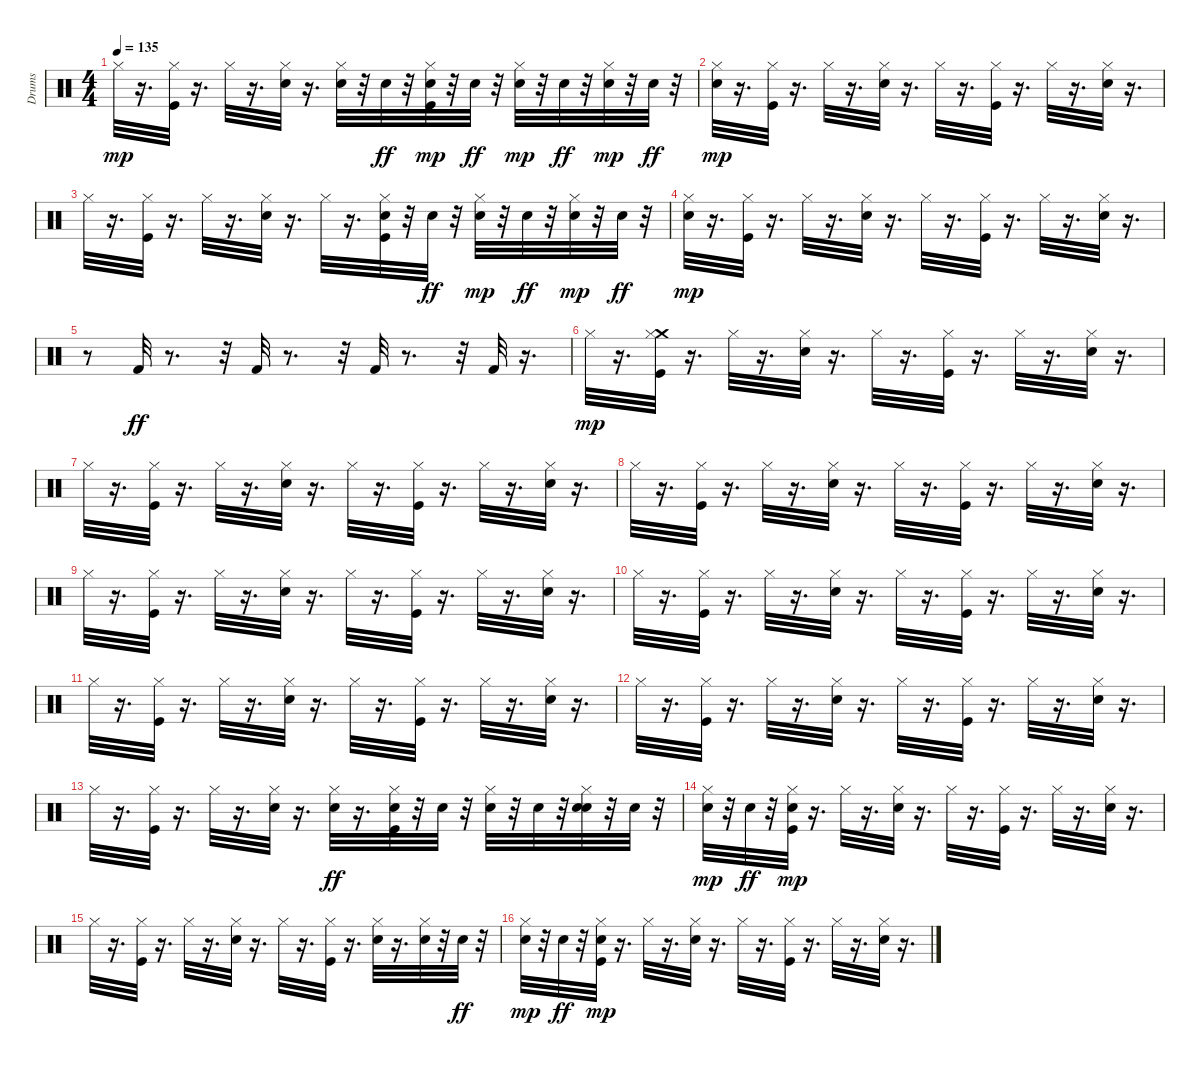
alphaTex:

\track ("Drums" "Drums") {instrument percussion}
\staff {score}
\articulation defaults
\ts (4 4)
\tempo 135
\clef neutral
\ks c "Hi-Hat (closed)".32{dy mp}
r.16{d} ("Kick (hit)" "Hi-Hat (closed)").32 r.16{d} "Hi-Hat (closed)".32 r.16{d} ("Snare (hit) 2" "Hi-Hat (closed)").32 r.16{d} ("Snare (hit) 2" "Hi-Hat (closed)").32 r.32 "Snare (hit) 2".32{dy ff} r.32 ("Kick (hit)" "Snare (hit) 2" "Hi-Hat (closed)").32{dy mp} r.32 "Snare (hit) 2".32{dy ff} r.32 ("Snare (hit) 2" "Hi-Hat (closed)").32{dy mp} r.32 "Snare (hit) 2".32{dy ff} r.32 ("Snare (hit) 2" "Hi-Hat (closed)").32{dy mp} r.32 "Snare (hit) 2".32{dy ff} r.32 |
("Snare (hit) 2" "Hi-Hat (closed)").32{dy mp} r.16{d} ("Hi-Hat (closed)" "Kick (hit)").32 r.16{d} "Hi-Hat (closed)".32 r.16{d} ("Snare (hit) 2" "Hi-Hat (closed)").32 r.16{d} "Hi-Hat (closed)".32 r.16{d} ("Kick (hit)" "Hi-Hat (closed)").32 r.16{d} "Hi-Hat (closed)".32 r.16{d} ("Snare (hit) 2" "Hi-Hat (closed)").32 r.16{d} |
"Hi-Hat (closed)".32 r.16{d} ("Kick (hit)" "Hi-Hat (closed)").32 r.16{d} "Hi-Hat (closed)".32 r.16{d} ("Snare (hit) 2" "Hi-Hat (closed)").32 r.16{d} "Hi-Hat (closed)".32 r.16{d} ("Kick (hit)" "Snare (hit) 2" "Hi-Hat (closed)").32 r.32 "Snare (hit) 2".32{dy ff} r.32 ("Snare (hit) 2" "Hi-Hat (closed)").32{dy mp} r.32 "Snare (hit) 2".32{dy ff} r.32 ("Snare (hit) 2" "Hi-Hat (closed)").32{dy mp} r.32 "Snare (hit) 2".32{dy ff} r.32 |
("Snare (hit) 2" "Hi-Hat (closed)").32{dy mp} r.16{d} ("Kick (hit)" "Hi-Hat (closed)").32 r.16{d} "Hi-Hat (closed)".32 r.16{d} ("Snare (hit) 2" "Hi-Hat (closed)").32 r.16{d} "Hi-Hat (closed)".32 r.16{d} ("Kick (hit)" "Hi-Hat (closed)").32 r.16{d} "Hi-Hat (closed)".32 r.16{d} ("Snare (hit) 2" "Hi-Hat (closed)").32 r.16{d} |
r.8 "Kick (hit) 2".32{dy ff} r.8{d} r.32 "Kick (hit) 2".32 r.8{d} r.32 "Kick (hit) 2".32 r.8{d} r.32 "Kick (hit) 2".32 r.16{d} |
"Hi-Hat (closed)".32{dy mp} r.16{d} ("Kick (hit)" "Crash medium (hit)" "Hi-Hat (closed)").32 r.16{d} "Hi-Hat (closed)".32 r.16{d} ("Snare (hit) 2" "Hi-Hat (closed)").32 r.16{d} "Hi-Hat (closed)".32 r.16{d} ("Kick (hit)" "Hi-Hat (closed)").32 r.16{d} "Hi-Hat (closed)".32 r.16{d} ("Snare (hit) 2" "Hi-Hat (closed)").32 r.16{d} |
"Hi-Hat (closed)".32 r.16{d} ("Kick (hit)" "Hi-Hat (closed)").32 r.16{d} "Hi-Hat (closed)".32 r.16{d} ("Snare (hit) 2" "Hi-Hat (closed)").32 r.16{d} "Hi-Hat (closed)".32 r.16{d} ("Hi-Hat (closed)" "Kick (hit)").32 r.16{d} "Hi-Hat (closed)".32 r.16{d} ("Snare (hit) 2" "Hi-Hat (closed)").32 r.16{d} |
"Hi-Hat (closed)".32 r.16{d} ("Kick (hit)" "Hi-Hat (closed)").32 r.16{d} "Hi-Hat (closed)".32 r.16{d} ("Snare (hit) 2" "Hi-Hat (closed)").32 r.16{d} "Hi-Hat (closed)".32 r.16{d} ("Kick (hit)" "Hi-Hat (closed)").32 r.16{d} "Hi-Hat (closed)".32 r.16{d} ("Snare (hit) 2" "Hi-Hat (closed)").32 r.16{d} |
"Hi-Hat (closed)".32 r.16{d} ("Kick (hit)" "Hi-Hat (closed)").32 r.16{d} "Hi-Hat (closed)".32 r.16{d} ("Snare (hit) 2" "Hi-Hat (closed)").32 r.16{d} "Hi-Hat (closed)".32 r.16{d} ("Kick (hit)" "Hi-Hat (closed)").32 r.16{d} "Hi-Hat (closed)".32 r.16{d} ("Snare (hit) 2" "Hi-Hat (closed)").32 r.16{d} |
"Hi-Hat (closed)".32 r.16{d} ("Kick (hit)" "Hi-Hat (closed)").32 r.16{d} "Hi-Hat (closed)".32 r.16{d} ("Snare (hit) 2" "Hi-Hat (closed)").32 r.16{d} "Hi-Hat (closed)".32 r.16{d} ("Kick (hit)" "Hi-Hat (closed)").32 r.16{d} "Hi-Hat (closed)".32 r.16{d} ("Snare (hit) 2" "Hi-Hat (closed)").32 r.16{d} |
"Hi-Hat (closed)".32 r.16{d} ("Kick (hit)" "Hi-Hat (closed)").32 r.16{d} "Hi-Hat (closed)".32 r.16{d} ("Snare (hit) 2" "Hi-Hat (closed)").32 r.16{d} "Hi-Hat (closed)".32 r.16{d} ("Kick (hit)" "Hi-Hat (closed)").32 r.16{d} "Hi-Hat (closed)".32 r.16{d} ("Snare (hit) 2" "Hi-Hat (closed)").32 r.16{d} |
"Hi-Hat (closed)".32 r.16{d} ("Kick (hit)" "Hi-Hat (closed)").32 r.16{d} "Hi-Hat (closed)".32 r.16{d} ("Snare (hit) 2" "Hi-Hat (closed)").32 r.16{d} "Hi-Hat (closed)".32 r.16{d} ("Kick (hit)" "Hi-Hat (closed)").32 r.16{d} "Hi-Hat (closed)".32 r.16{d} ("Snare (hit) 2" "Hi-Hat (closed)").32 r.16{d} |
"Hi-Hat (closed)".32 r.16{d} ("Kick (hit)" "Hi-Hat (closed)").32 r.16{d} "Hi-Hat (closed)".32 r.16{d} ("Snare (hit) 2" "Hi-Hat (closed)").32 r.16{d} ("Hi-Hat (closed)" "Snare (hit) 2").32{dy ff} r.16{d} ("Kick (hit)" "Hi-Hat (closed)" "Snare (hit) 2").32 r.32 "Snare (hit) 2".32 r.32 ("Hi-Hat (closed)" "Snare (hit) 2").32 r.32 "Snare (hit) 2".32 r.32 ("Snare (hit) 2" "Hi-Hat (closed)" "Snare (hit) 2").32 r.32 "Snare (hit) 2".32 r.32 |
("Snare (hit) 2" "Hi-Hat (closed)").32{dy mp} r.32 "Snare (hit) 2".32{dy ff} r.32 ("Snare (hit) 2" "Kick (hit)" "Hi-Hat (closed)").32{dy mp} r.16{d} "Hi-Hat (closed)".32 r.16{d} ("Snare (hit) 2" "Hi-Hat (closed)").32 r.16{d} "Hi-Hat (closed)".32 r.16{d} ("Kick (hit)" "Hi-Hat (closed)").32 r.16{d} "Hi-Hat (closed)".32 r.16{d} ("Snare (hit) 2" "Hi-Hat (closed)").32 r.16{d} |
"Hi-Hat (closed)".32 r.16{d} ("Kick (hit)" "Hi-Hat (closed)").32 r.16{d} "Hi-Hat (closed)".32 r.16{d} ("Snare (hit) 2" "Hi-Hat (closed)").32 r.16{d} "Hi-Hat (closed)".32 r.16{d} ("Kick (hit)" "Hi-Hat (closed)").32 r.16{d} ("Snare (hit) 2" "Hi-Hat (closed)").32 r.16{d} ("Snare (hit) 2" "Hi-Hat (closed)").32 r.32 "Snare (hit) 2".32{dy ff} r.32 |
("Snare (hit) 2" "Hi-Hat (closed)").32{dy mp} r.32 "Snare (hit) 2".32{dy ff} r.32 ("Snare (hit) 2" "Kick (hit)" "Hi-Hat (closed)").32{dy mp} r.16{d} "Hi-Hat (closed)".32 r.16{d} ("Snare (hit) 2" "Hi-Hat (closed)").32 r.16{d} "Hi-Hat (closed)".32 r.16{d} ("Kick (hit)" "Hi-Hat (closed)").32 r.16{d} "Hi-Hat (closed)".32 r.16{d} ("Snare (hit) 2" "Hi-Hat (closed)").32 r.16{d}
